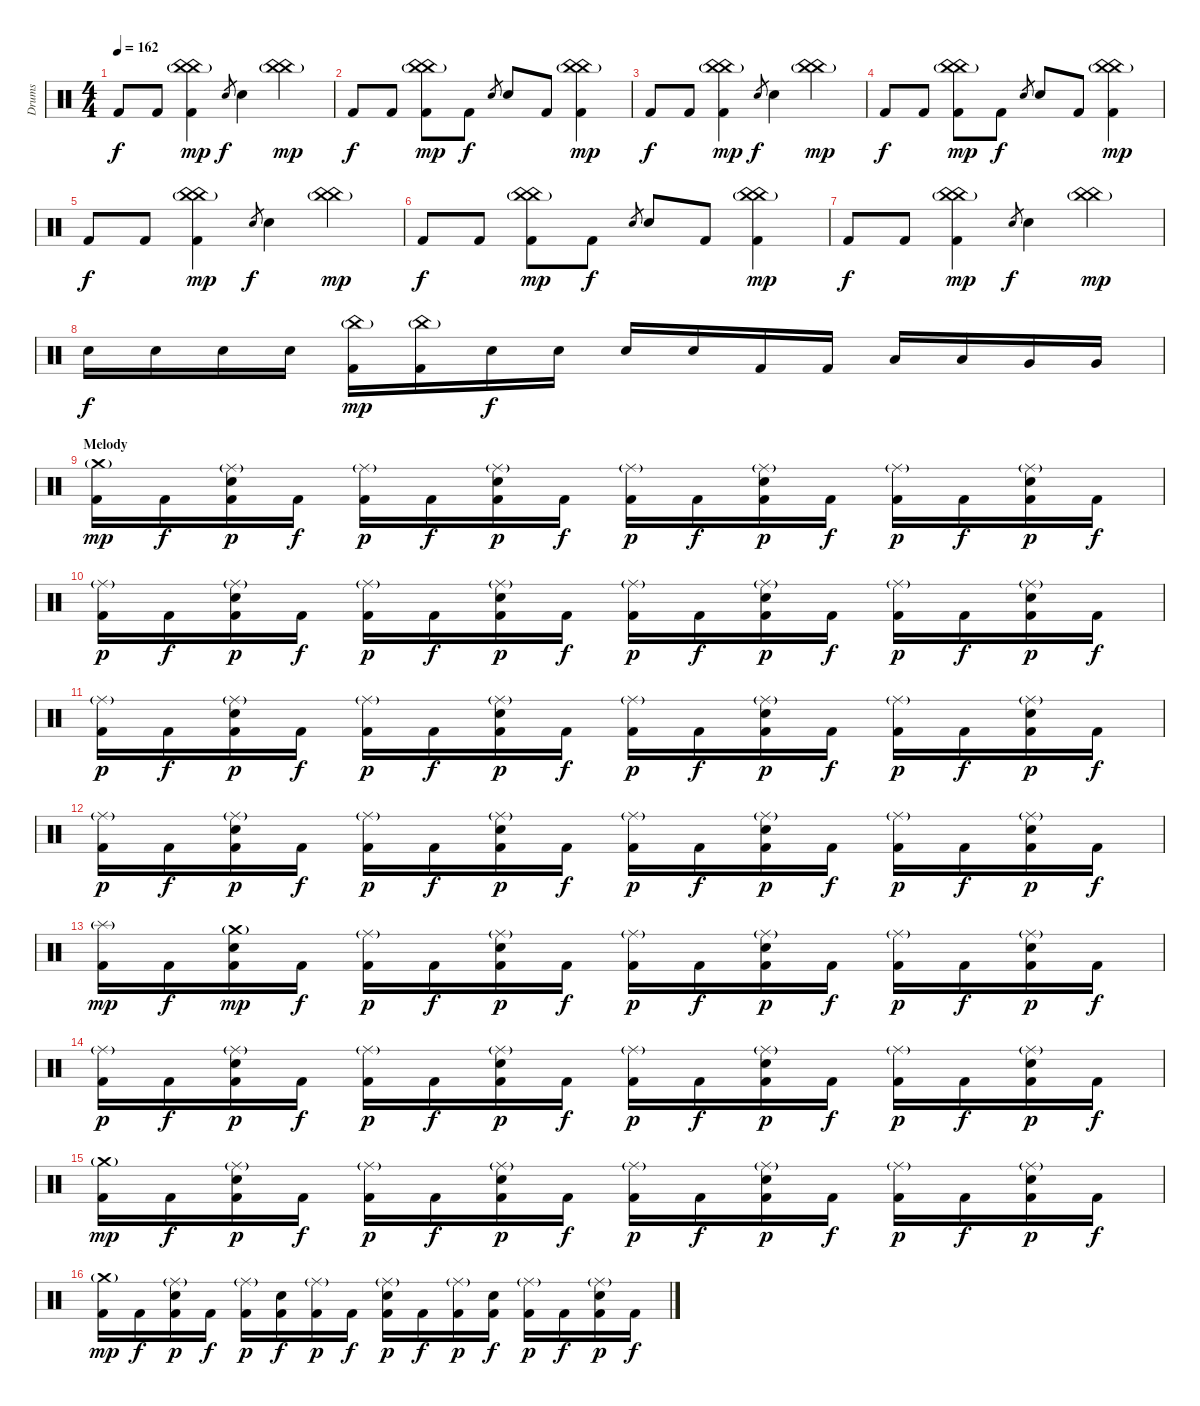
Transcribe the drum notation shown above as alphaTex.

\track ("Drums" "Drums") {instrument percussion}
\staff {score}
\articulation defaults
\ts (4 4)
\tempo 162
\clef neutral
\ks c "Kick (hit) 2".8{dy f} "Kick (hit) 2".8
("China (hit)"{g} "China (hit)"{g} "Kick (hit) 2").4{dy mp} "Snare (hit) 2".8{gr dy f} "Snare (hit) 2".4 ("China (hit)"{g} "China (hit)"{g}).4{dy mp} |
"Kick (hit) 2".8{dy f} "Kick (hit) 2".8 ("China (hit)"{g} "China (hit)"{g} "Kick (hit) 2").8{dy mp} "Kick (hit) 2".8{dy f} "Snare (hit) 2".8{gr} "Snare (hit) 2".8 "Kick (hit) 2".8 ("China (hit)"{g} "China (hit)"{g} "Kick (hit) 2").4{dy mp} |
"Kick (hit) 2".8{dy f} "Kick (hit) 2".8 ("China (hit)"{g} "China (hit)"{g} "Kick (hit) 2").4{dy mp} "Snare (hit) 2".8{gr dy f} "Snare (hit) 2".4 ("China (hit)"{g} "China (hit)"{g}).4{dy mp} |
"Kick (hit) 2".8{dy f} "Kick (hit) 2".8 ("China (hit)"{g} "China (hit)"{g} "Kick (hit) 2").8{dy mp} "Kick (hit) 2".8{dy f} "Snare (hit) 2".8{gr} "Snare (hit) 2".8 "Kick (hit) 2".8 ("China (hit)"{g} "China (hit)"{g} "Kick (hit) 2").4{dy mp} |
"Kick (hit) 2".8{dy f} "Kick (hit) 2".8 ("China (hit)"{g} "China (hit)"{g} "Kick (hit) 2").4{dy mp} "Snare (hit) 2".8{gr dy f} "Snare (hit) 2".4 ("China (hit)"{g} "China (hit)"{g}).4{dy mp} |
"Kick (hit) 2".8{dy f} "Kick (hit) 2".8 ("China (hit)"{g} "China (hit)"{g} "Kick (hit) 2").8{dy mp} "Kick (hit) 2".8{dy f} "Snare (hit) 2".8{gr} "Snare (hit) 2".8 "Kick (hit) 2".8 ("China (hit)"{g} "China (hit)"{g} "Kick (hit) 2").4{dy mp} |
"Kick (hit) 2".8{dy f} "Kick (hit) 2".8 ("China (hit)"{g} "China (hit)"{g} "Kick (hit) 2").4{dy mp} "Snare (hit) 2".8{gr dy f} "Snare (hit) 2".4 ("China (hit)"{g} "China (hit)"{g}).4{dy mp} |
"Snare (hit) 2".16{dy f} "Snare (hit) 2".16 "Snare (hit) 2".16 "Snare (hit) 2".16 ("China (hit)"{g} "Kick (hit) 2").16{dy mp} ("China (hit)"{g} "Kick (hit) 2").16 "Snare (hit) 2".16{dy f} "Snare (hit) 2".16 "Snare (hit) 2".16 "Snare (hit) 2".16 "Kick (hit) 2".16 "Kick (hit) 2".16 "Low Tom (hit)".16 "Low Tom (hit)".16 "Very Low Tom (hit)".16 "Very Low Tom (hit)".16 |
\section ("" "Melody")
("Crash medium (hit)"{g} "Kick (hit) 2").16{dy mp} "Kick (hit) 2".16{dy f} ("Ride (middle)"{g} "Snare (hit) 2" "Kick (hit) 2").16{dy p} "Kick (hit) 2".16{dy f} ("Ride (middle)"{g} "Kick (hit) 2").16{dy p} "Kick (hit) 2".16{dy f} ("Ride (middle)"{g} "Snare (hit) 2" "Kick (hit) 2").16{dy p} "Kick (hit) 2".16{dy f} ("Ride (middle)"{g} "Kick (hit) 2").16{dy p} "Kick (hit) 2".16{dy f} ("Ride (middle)"{g} "Snare (hit) 2" "Kick (hit) 2").16{dy p} "Kick (hit) 2".16{dy f} ("Ride (middle)"{g} "Kick (hit) 2").16{dy p} "Kick (hit) 2".16{dy f} ("Ride (middle)"{g} "Snare (hit) 2" "Kick (hit) 2").16{dy p} "Kick (hit) 2".16{dy f} |
("Ride (middle)"{g} "Kick (hit) 2").16{dy p} "Kick (hit) 2".16{dy f} ("Ride (middle)"{g} "Snare (hit) 2" "Kick (hit) 2").16{dy p} "Kick (hit) 2".16{dy f} ("Ride (middle)"{g} "Kick (hit) 2").16{dy p} "Kick (hit) 2".16{dy f} ("Ride (middle)"{g} "Snare (hit) 2" "Kick (hit) 2").16{dy p} "Kick (hit) 2".16{dy f} ("Ride (middle)"{g} "Kick (hit) 2").16{dy p} "Kick (hit) 2".16{dy f} ("Ride (middle)"{g} "Snare (hit) 2" "Kick (hit) 2").16{dy p} "Kick (hit) 2".16{dy f} ("Ride (middle)"{g} "Kick (hit) 2").16{dy p} "Kick (hit) 2".16{dy f} ("Ride (middle)"{g} "Snare (hit) 2" "Kick (hit) 2").16{dy p} "Kick (hit) 2".16{dy f} |
("Ride (middle)"{g} "Kick (hit) 2").16{dy p} "Kick (hit) 2".16{dy f} ("Ride (middle)"{g} "Snare (hit) 2" "Kick (hit) 2").16{dy p} "Kick (hit) 2".16{dy f} ("Ride (middle)"{g} "Kick (hit) 2").16{dy p} "Kick (hit) 2".16{dy f} ("Ride (middle)"{g} "Snare (hit) 2" "Kick (hit) 2").16{dy p} "Kick (hit) 2".16{dy f} ("Ride (middle)"{g} "Kick (hit) 2").16{dy p} "Kick (hit) 2".16{dy f} ("Ride (middle)"{g} "Snare (hit) 2" "Kick (hit) 2").16{dy p} "Kick (hit) 2".16{dy f} ("Ride (middle)"{g} "Kick (hit) 2").16{dy p} "Kick (hit) 2".16{dy f} ("Ride (middle)"{g} "Snare (hit) 2" "Kick (hit) 2").16{dy p} "Kick (hit) 2".16{dy f} |
("Ride (middle)"{g} "Kick (hit) 2").16{dy p} "Kick (hit) 2".16{dy f} ("Ride (middle)"{g} "Snare (hit) 2" "Kick (hit) 2").16{dy p} "Kick (hit) 2".16{dy f} ("Ride (middle)"{g} "Kick (hit) 2").16{dy p} "Kick (hit) 2".16{dy f} ("Ride (middle)"{g} "Snare (hit) 2" "Kick (hit) 2").16{dy p} "Kick (hit) 2".16{dy f} ("Ride (middle)"{g} "Kick (hit) 2").16{dy p} "Kick (hit) 2".16{dy f} ("Ride (middle)"{g} "Snare (hit) 2" "Kick (hit) 2").16{dy p} "Kick (hit) 2".16{dy f} ("Ride (middle)"{g} "Kick (hit) 2").16{dy p} "Kick (hit) 2".16{dy f} ("Ride (middle)"{g} "Snare (hit) 2" "Kick (hit) 2").16{dy p} "Kick (hit) 2".16{dy f} |
("Splash (hit)"{g} "Kick (hit) 2").16{dy mp} "Kick (hit) 2".16{dy f} ("Crash medium (hit)"{g} "Snare (hit) 2" "Kick (hit) 2").16{dy mp} "Kick (hit) 2".16{dy f} ("Ride (middle)"{g} "Kick (hit) 2").16{dy p} "Kick (hit) 2".16{dy f} ("Ride (middle)"{g} "Snare (hit) 2" "Kick (hit) 2").16{dy p} "Kick (hit) 2".16{dy f} ("Ride (middle)"{g} "Kick (hit) 2").16{dy p} "Kick (hit) 2".16{dy f} ("Ride (middle)"{g} "Snare (hit) 2" "Kick (hit) 2").16{dy p} "Kick (hit) 2".16{dy f} ("Ride (middle)"{g} "Kick (hit) 2").16{dy p} "Kick (hit) 2".16{dy f} ("Ride (middle)"{g} "Snare (hit) 2" "Kick (hit) 2").16{dy p} "Kick (hit) 2".16{dy f} |
("Ride (middle)"{g} "Kick (hit) 2").16{dy p} "Kick (hit) 2".16{dy f} ("Ride (middle)"{g} "Snare (hit) 2" "Kick (hit) 2").16{dy p} "Kick (hit) 2".16{dy f} ("Ride (middle)"{g} "Kick (hit) 2").16{dy p} "Kick (hit) 2".16{dy f} ("Ride (middle)"{g} "Snare (hit) 2" "Kick (hit) 2").16{dy p} "Kick (hit) 2".16{dy f} ("Ride (middle)"{g} "Kick (hit) 2").16{dy p} "Kick (hit) 2".16{dy f} ("Ride (middle)"{g} "Snare (hit) 2" "Kick (hit) 2").16{dy p} "Kick (hit) 2".16{dy f} ("Ride (middle)"{g} "Kick (hit) 2").16{dy p} "Kick (hit) 2".16{dy f} ("Ride (middle)"{g} "Snare (hit) 2" "Kick (hit) 2").16{dy p} "Kick (hit) 2".16{dy f} |
("Crash medium (hit)"{g} "Kick (hit) 2").16{dy mp} "Kick (hit) 2".16{dy f} ("Ride (middle)"{g} "Snare (hit) 2" "Kick (hit) 2").16{dy p} "Kick (hit) 2".16{dy f} ("Ride (middle)"{g} "Kick (hit) 2").16{dy p} "Kick (hit) 2".16{dy f} ("Ride (middle)"{g} "Snare (hit) 2" "Kick (hit) 2").16{dy p} "Kick (hit) 2".16{dy f} ("Ride (middle)"{g} "Kick (hit) 2").16{dy p} "Kick (hit) 2".16{dy f} ("Ride (middle)"{g} "Snare (hit) 2" "Kick (hit) 2").16{dy p} "Kick (hit) 2".16{dy f} ("Ride (middle)"{g} "Kick (hit) 2").16{dy p} "Kick (hit) 2".16{dy f} ("Ride (middle)"{g} "Snare (hit) 2" "Kick (hit) 2").16{dy p} "Kick (hit) 2".16{dy f} |
("Crash medium (hit)"{g} "Kick (hit) 2").16{dy mp} "Kick (hit) 2".16{dy f} ("Ride (middle)"{g} "Snare (hit) 2" "Kick (hit) 2").16{dy p} "Kick (hit) 2".16{dy f} ("Ride (middle)"{g} "Kick (hit) 2").16{dy p} ("Snare (hit) 2" "Kick (hit) 2").16{dy f} ("Ride (middle)"{g} "Kick (hit) 2").16{dy p} "Kick (hit) 2".16{dy f} ("Ride (middle)"{g} "Snare (hit) 2" "Kick (hit) 2").16{dy p} "Kick (hit) 2".16{dy f} ("Ride (middle)"{g} "Kick (hit) 2").16{dy p} ("Snare (hit) 2" "Kick (hit) 2").16{dy f} ("Ride (middle)"{g} "Kick (hit) 2").16{dy p} "Kick (hit) 2".16{dy f} ("Ride (middle)"{g} "Snare (hit) 2" "Kick (hit) 2").16{dy p} "Kick (hit) 2".16{dy f}
